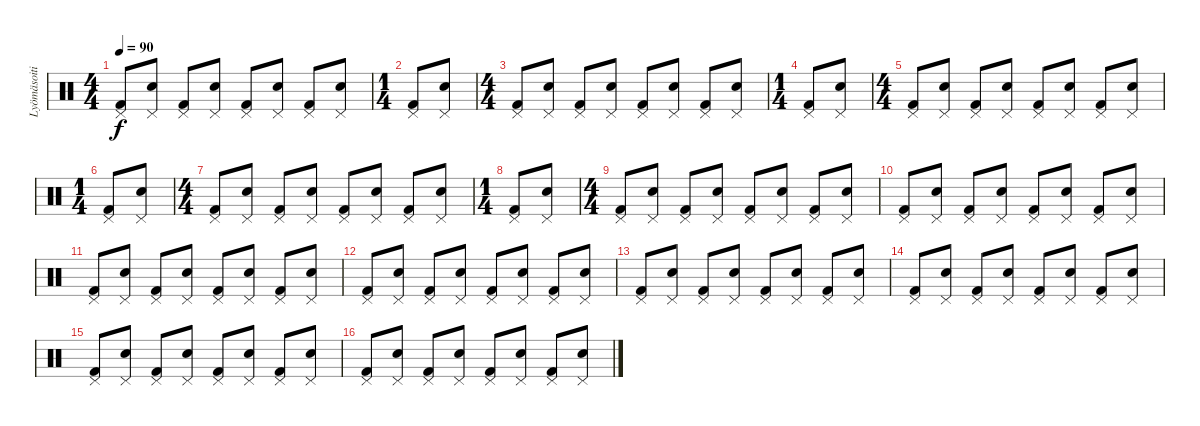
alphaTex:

\track ("Lyömäsoitin" "Lyömäsoiti") {instrument percussion}
\staff {score}
\articulation defaults
\ts (4 4)
\tempo 90
\clef neutral
\ks c
("Pedal Hi-Hat (hit)" "Kick (hit) 2").8{dy f} ("Pedal Hi-Hat (hit)" "Snare (hit) 2").8 ("Pedal Hi-Hat (hit)" "Kick (hit) 2").8 ("Pedal Hi-Hat (hit)" "Snare (hit) 2").8 ("Pedal Hi-Hat (hit)" "Kick (hit) 2").8 ("Pedal Hi-Hat (hit)" "Snare (hit) 2").8 ("Pedal Hi-Hat (hit)" "Kick (hit) 2").8 ("Pedal Hi-Hat (hit)" "Snare (hit) 2").8 |
\ts (1 4)
("Pedal Hi-Hat (hit)" "Kick (hit) 2").8 ("Pedal Hi-Hat (hit)" "Snare (hit) 2").8 |
\ts (4 4)
("Pedal Hi-Hat (hit)" "Kick (hit) 2").8 ("Pedal Hi-Hat (hit)" "Snare (hit) 2").8 ("Pedal Hi-Hat (hit)" "Kick (hit) 2").8 ("Pedal Hi-Hat (hit)" "Snare (hit) 2").8 ("Pedal Hi-Hat (hit)" "Kick (hit) 2").8 ("Pedal Hi-Hat (hit)" "Snare (hit) 2").8 ("Pedal Hi-Hat (hit)" "Kick (hit) 2").8 ("Pedal Hi-Hat (hit)" "Snare (hit) 2").8 |
\ts (1 4)
("Pedal Hi-Hat (hit)" "Kick (hit) 2").8 ("Pedal Hi-Hat (hit)" "Snare (hit) 2").8 |
\ts (4 4)
("Pedal Hi-Hat (hit)" "Kick (hit) 2").8 ("Pedal Hi-Hat (hit)" "Snare (hit) 2").8 ("Pedal Hi-Hat (hit)" "Kick (hit) 2").8 ("Pedal Hi-Hat (hit)" "Snare (hit) 2").8 ("Pedal Hi-Hat (hit)" "Kick (hit) 2").8 ("Pedal Hi-Hat (hit)" "Snare (hit) 2").8 ("Pedal Hi-Hat (hit)" "Kick (hit) 2").8 ("Pedal Hi-Hat (hit)" "Snare (hit) 2").8 |
\ts (1 4)
("Pedal Hi-Hat (hit)" "Kick (hit) 2").8 ("Pedal Hi-Hat (hit)" "Snare (hit) 2").8 |
\ts (4 4)
("Pedal Hi-Hat (hit)" "Kick (hit) 2").8 ("Pedal Hi-Hat (hit)" "Snare (hit) 2").8 ("Pedal Hi-Hat (hit)" "Kick (hit) 2").8 ("Pedal Hi-Hat (hit)" "Snare (hit) 2").8 ("Pedal Hi-Hat (hit)" "Kick (hit) 2").8 ("Pedal Hi-Hat (hit)" "Snare (hit) 2").8 ("Pedal Hi-Hat (hit)" "Kick (hit) 2").8 ("Pedal Hi-Hat (hit)" "Snare (hit) 2").8 |
\ts (1 4)
("Pedal Hi-Hat (hit)" "Kick (hit) 2").8 ("Pedal Hi-Hat (hit)" "Snare (hit) 2").8 |
\ts (4 4)
("Pedal Hi-Hat (hit)" "Kick (hit) 2").8 ("Pedal Hi-Hat (hit)" "Snare (hit) 2").8 ("Pedal Hi-Hat (hit)" "Kick (hit) 2").8 ("Pedal Hi-Hat (hit)" "Snare (hit) 2").8 ("Pedal Hi-Hat (hit)" "Kick (hit) 2").8 ("Pedal Hi-Hat (hit)" "Snare (hit) 2").8 ("Pedal Hi-Hat (hit)" "Kick (hit) 2").8 ("Pedal Hi-Hat (hit)" "Snare (hit) 2").8 |
("Pedal Hi-Hat (hit)" "Kick (hit) 2").8 ("Pedal Hi-Hat (hit)" "Snare (hit) 2").8 ("Pedal Hi-Hat (hit)" "Kick (hit) 2").8 ("Pedal Hi-Hat (hit)" "Snare (hit) 2").8 ("Pedal Hi-Hat (hit)" "Kick (hit) 2").8 ("Pedal Hi-Hat (hit)" "Snare (hit) 2").8 ("Pedal Hi-Hat (hit)" "Kick (hit) 2").8 ("Pedal Hi-Hat (hit)" "Snare (hit) 2").8 |
("Pedal Hi-Hat (hit)" "Kick (hit) 2").8 ("Pedal Hi-Hat (hit)" "Snare (hit) 2").8 ("Pedal Hi-Hat (hit)" "Kick (hit) 2").8 ("Pedal Hi-Hat (hit)" "Snare (hit) 2").8 ("Pedal Hi-Hat (hit)" "Kick (hit) 2").8 ("Pedal Hi-Hat (hit)" "Snare (hit) 2").8 ("Pedal Hi-Hat (hit)" "Kick (hit) 2").8 ("Pedal Hi-Hat (hit)" "Snare (hit) 2").8 |
("Pedal Hi-Hat (hit)" "Kick (hit) 2").8 ("Pedal Hi-Hat (hit)" "Snare (hit) 2").8 ("Pedal Hi-Hat (hit)" "Kick (hit) 2").8 ("Pedal Hi-Hat (hit)" "Snare (hit) 2").8 ("Pedal Hi-Hat (hit)" "Kick (hit) 2").8 ("Pedal Hi-Hat (hit)" "Snare (hit) 2").8 ("Pedal Hi-Hat (hit)" "Kick (hit) 2").8 ("Pedal Hi-Hat (hit)" "Snare (hit) 2").8 |
("Pedal Hi-Hat (hit)" "Kick (hit) 2").8 ("Pedal Hi-Hat (hit)" "Snare (hit) 2").8 ("Pedal Hi-Hat (hit)" "Kick (hit) 2").8 ("Pedal Hi-Hat (hit)" "Snare (hit) 2").8 ("Pedal Hi-Hat (hit)" "Kick (hit) 2").8 ("Pedal Hi-Hat (hit)" "Snare (hit) 2").8 ("Pedal Hi-Hat (hit)" "Kick (hit) 2").8 ("Pedal Hi-Hat (hit)" "Snare (hit) 2").8 |
("Pedal Hi-Hat (hit)" "Kick (hit) 2").8 ("Pedal Hi-Hat (hit)" "Snare (hit) 2").8 ("Pedal Hi-Hat (hit)" "Kick (hit) 2").8 ("Pedal Hi-Hat (hit)" "Snare (hit) 2").8 ("Pedal Hi-Hat (hit)" "Kick (hit) 2").8 ("Pedal Hi-Hat (hit)" "Snare (hit) 2").8 ("Pedal Hi-Hat (hit)" "Kick (hit) 2").8 ("Pedal Hi-Hat (hit)" "Snare (hit) 2").8 |
("Pedal Hi-Hat (hit)" "Kick (hit) 2").8 ("Pedal Hi-Hat (hit)" "Snare (hit) 2").8 ("Pedal Hi-Hat (hit)" "Kick (hit) 2").8 ("Pedal Hi-Hat (hit)" "Snare (hit) 2").8 ("Pedal Hi-Hat (hit)" "Kick (hit) 2").8 ("Pedal Hi-Hat (hit)" "Snare (hit) 2").8 ("Pedal Hi-Hat (hit)" "Kick (hit) 2").8 ("Pedal Hi-Hat (hit)" "Snare (hit) 2").8 |
("Pedal Hi-Hat (hit)" "Kick (hit) 2").8 ("Pedal Hi-Hat (hit)" "Snare (hit) 2").8 ("Pedal Hi-Hat (hit)" "Kick (hit) 2").8 ("Pedal Hi-Hat (hit)" "Snare (hit) 2").8 ("Pedal Hi-Hat (hit)" "Kick (hit) 2").8 ("Pedal Hi-Hat (hit)" "Snare (hit) 2").8 ("Pedal Hi-Hat (hit)" "Kick (hit) 2").8 ("Pedal Hi-Hat (hit)" "Snare (hit) 2").8
